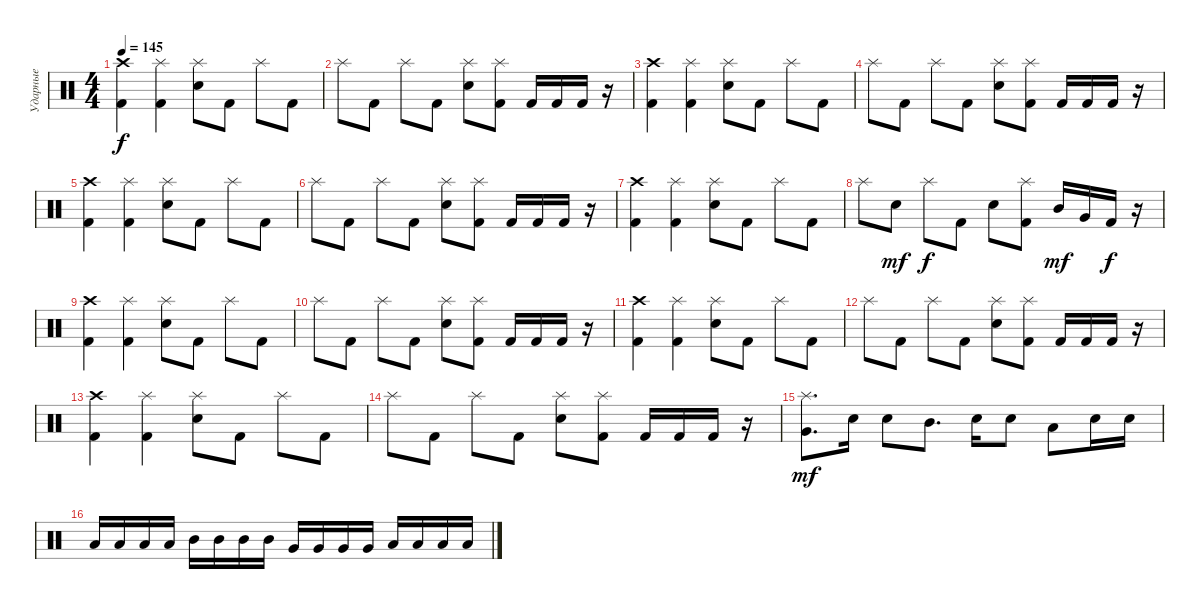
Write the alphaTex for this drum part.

\track ("Ударные" "Ударные") {instrument percussion}
\staff {score}
\articulation defaults
\ts (4 4)
\tempo 145
\clef neutral
\ks c
("Crash high (hit)" "Kick (hit) 2").4{dy f} ("Splash (hit)" "Kick (hit) 2").4 ("Splash (hit)" "Snare (hit) 2").8 "Kick (hit) 2".8 "Splash (hit)".8 "Kick (hit) 2".8 |
"Splash (hit)".8 "Kick (hit) 2".8 "Splash (hit)".8 "Kick (hit) 2".8 ("Splash (hit)" "Snare (hit) 2").8 ("Splash (hit)" "Kick (hit) 2").8 "Kick (hit) 2".16 "Kick (hit) 2".16 "Kick (hit) 2".16 r.16 |
("Crash high (hit)" "Kick (hit) 2").4 ("Splash (hit)" "Kick (hit) 2").4 ("Splash (hit)" "Snare (hit) 2").8 "Kick (hit) 2".8 "Splash (hit)".8 "Kick (hit) 2".8 |
"Splash (hit)".8 "Kick (hit) 2".8 "Splash (hit)".8 "Kick (hit) 2".8 ("Splash (hit)" "Snare (hit) 2").8 ("Splash (hit)" "Kick (hit) 2").8 "Kick (hit) 2".16 "Kick (hit) 2".16 "Kick (hit) 2".16 r.16 |
("Crash high (hit)" "Kick (hit) 2").4 ("Splash (hit)" "Kick (hit) 2").4 ("Splash (hit)" "Snare (hit) 2").8 "Kick (hit) 2".8 "Splash (hit)".8 "Kick (hit) 2".8 |
"Splash (hit)".8 "Kick (hit) 2".8 "Splash (hit)".8 "Kick (hit) 2".8 ("Splash (hit)" "Snare (hit) 2").8 ("Splash (hit)" "Kick (hit) 2").8 "Kick (hit) 2".16 "Kick (hit) 2".16 "Kick (hit) 2".16 r.16 |
("Crash high (hit)" "Kick (hit) 2").4 ("Splash (hit)" "Kick (hit) 2").4 ("Splash (hit)" "Snare (hit) 2").8 "Kick (hit) 2".8 "Splash (hit)".8 "Kick (hit) 2".8 |
"Splash (hit)".8 "Snare (hit) 2".8{dy mf} "Splash (hit)".8{dy f} "Kick (hit) 2".8 "Snare (hit) 2".8 ("Splash (hit)" "Kick (hit) 2").8 "Mid Tom (hit)".16{dy mf} "Very Low Tom (hit)".16 "Kick (hit) 2".16{dy f} r.16 |
("Crash high (hit)" "Kick (hit) 2").4 ("Splash (hit)" "Kick (hit) 2").4 ("Splash (hit)" "Snare (hit) 2").8 "Kick (hit) 2".8 "Splash (hit)".8 "Kick (hit) 2".8 |
"Splash (hit)".8 "Kick (hit) 2".8 "Splash (hit)".8 "Kick (hit) 2".8 ("Splash (hit)" "Snare (hit) 2").8 ("Splash (hit)" "Kick (hit) 2").8 "Kick (hit) 2".16 "Kick (hit) 2".16 "Kick (hit) 2".16 r.16 |
("Crash high (hit)" "Kick (hit) 2").4 ("Splash (hit)" "Kick (hit) 2").4 ("Splash (hit)" "Snare (hit) 2").8 "Kick (hit) 2".8 "Splash (hit)".8 "Kick (hit) 2".8 |
"Splash (hit)".8 "Kick (hit) 2".8 "Splash (hit)".8 "Kick (hit) 2".8 ("Splash (hit)" "Snare (hit) 2").8 ("Splash (hit)" "Kick (hit) 2").8 "Kick (hit) 2".16 "Kick (hit) 2".16 "Kick (hit) 2".16 r.16 |
("Crash high (hit)" "Kick (hit) 2").4 ("Splash (hit)" "Kick (hit) 2").4 ("Splash (hit)" "Snare (hit) 2").8 "Kick (hit) 2".8 "Splash (hit)".8 "Kick (hit) 2".8 |
"Splash (hit)".8 "Kick (hit) 2".8 "Splash (hit)".8 "Kick (hit) 2".8 ("Splash (hit)" "Snare (hit) 2").8 ("Splash (hit)" "Kick (hit) 2").8 "Kick (hit) 2".16 "Kick (hit) 2".16 "Kick (hit) 2".16 r.16 |
("Splash (hit)" "Very Low Tom (hit)").8{d dy mf} "Snare (hit) 2".16 "Snare (hit) 2".8 "Mid Tom (hit)".8{d} "Snare (hit) 2".16 "Snare (hit) 2".8 "Low Tom (hit)".8 "Snare (hit) 2".16 "Snare (hit) 2".16 |
"Low Tom (hit)".16 "Low Tom (hit)".16 "Low Tom (hit)".16 "Low Tom (hit)".16 "Mid Tom (hit)".16 "Mid Tom (hit)".16 "Mid Tom (hit)".16 "Mid Tom (hit)".16 "Very Low Tom (hit)".16 "Very Low Tom (hit)".16 "Very Low Tom (hit)".16 "Very Low Tom (hit)".16 "Low Floor Tom (hit)".16 "Low Floor Tom (hit)".16 "Low Floor Tom (hit)".16 "Low Floor Tom (hit)".16
